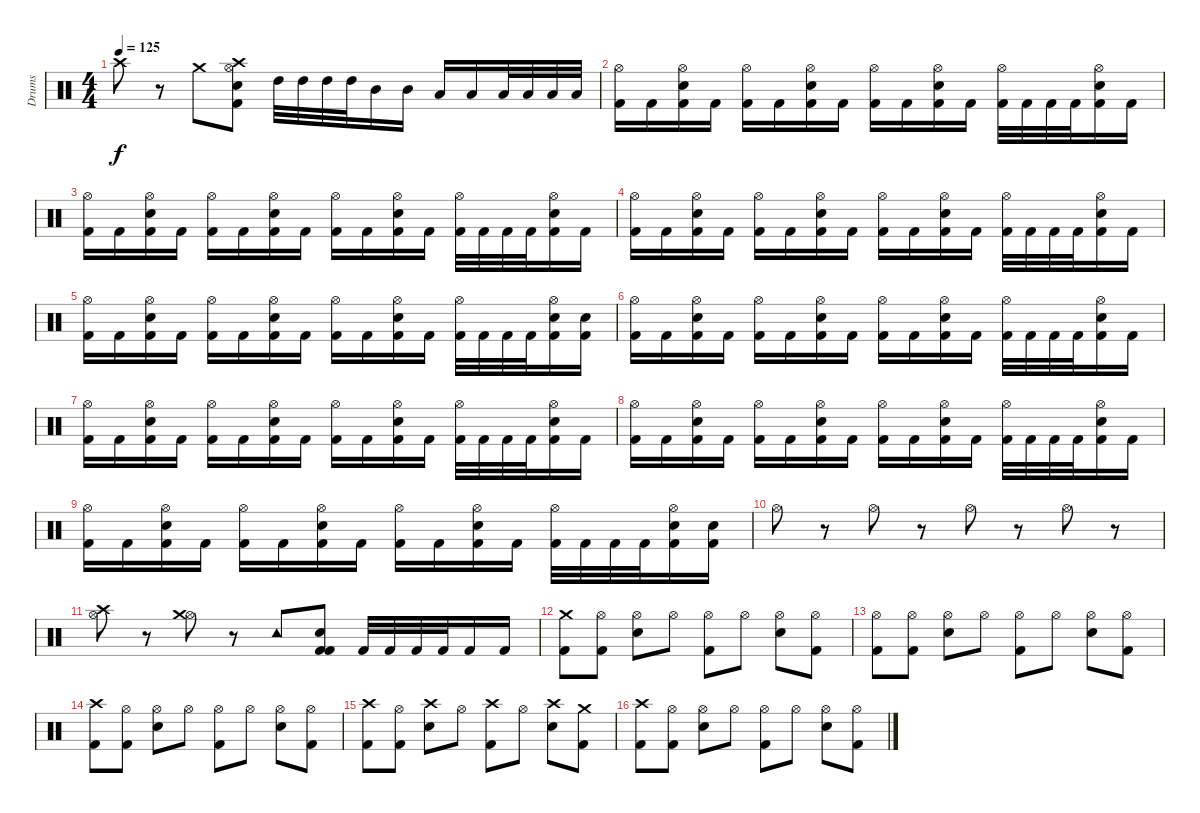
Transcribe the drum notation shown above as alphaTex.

\track ("Drums" "Drums") {instrument percussion}
\staff {score}
\articulation defaults
\ts (4 4)
\tempo 125
\clef neutral
\ks c "Crash high (hit)".8{dy f}
r.8 "Crash medium (hit)".8 ("Hi-Hat (open)" "Crash high (hit)" "Kick (hit) 2" "Electric Snare (hit)").8 "High Tom (hit)".32 "High Tom (hit)".32 "High Tom (hit)".32 "High Tom (hit)".32 "Mid Tom (hit)".16 "Mid Tom (hit)".16 "Low Tom (hit)".16 "Low Tom (hit)".16 "Low Floor Tom (hit)".32 "Low Floor Tom (hit)".32 "Low Floor Tom (hit)".32 "Low Floor Tom (hit)".32 |
("Hi-Hat (open)" "Kick (hit) 2").16 "Kick (hit) 2".16 ("Hi-Hat (open)" "Electric Snare (hit)" "Kick (hit) 2").16 "Kick (hit) 2".16 ("Hi-Hat (open)" "Kick (hit) 2").16 "Kick (hit) 2".16 ("Hi-Hat (open)" "Electric Snare (hit)" "Kick (hit) 2").16 "Kick (hit) 2".16 ("Hi-Hat (open)" "Kick (hit) 2").16 "Kick (hit) 2".16 ("Hi-Hat (open)" "Electric Snare (hit)" "Kick (hit) 2").16 "Kick (hit) 2".16 ("Hi-Hat (open)" "Kick (hit) 2").32 "Kick (hit) 2".32 "Kick (hit) 2".32 "Kick (hit) 2".32 ("Hi-Hat (open)" "Electric Snare (hit)" "Kick (hit) 2").16 "Kick (hit) 2".16 |
("Hi-Hat (open)" "Kick (hit) 2").16 "Kick (hit) 2".16 ("Hi-Hat (open)" "Electric Snare (hit)" "Kick (hit) 2").16 "Kick (hit) 2".16 ("Hi-Hat (open)" "Kick (hit) 2").16 "Kick (hit) 2".16 ("Hi-Hat (open)" "Electric Snare (hit)" "Kick (hit) 2").16 "Kick (hit) 2".16 ("Hi-Hat (open)" "Kick (hit) 2").16 "Kick (hit) 2".16 ("Hi-Hat (open)" "Electric Snare (hit)" "Kick (hit) 2").16 "Kick (hit) 2".16 ("Hi-Hat (open)" "Kick (hit) 2").32 "Kick (hit) 2".32 "Kick (hit) 2".32 "Kick (hit) 2".32 ("Hi-Hat (open)" "Electric Snare (hit)" "Kick (hit) 2").16 "Kick (hit) 2".16 |
("Hi-Hat (open)" "Kick (hit) 2").16 "Kick (hit) 2".16 ("Hi-Hat (open)" "Electric Snare (hit)" "Kick (hit) 2").16 "Kick (hit) 2".16 ("Hi-Hat (open)" "Kick (hit) 2").16 "Kick (hit) 2".16 ("Hi-Hat (open)" "Electric Snare (hit)" "Kick (hit) 2").16 "Kick (hit) 2".16 ("Hi-Hat (open)" "Kick (hit) 2").16 "Kick (hit) 2".16 ("Hi-Hat (open)" "Electric Snare (hit)" "Kick (hit) 2").16 "Kick (hit) 2".16 ("Hi-Hat (open)" "Kick (hit) 2").32 "Kick (hit) 2".32 "Kick (hit) 2".32 "Kick (hit) 2".32 ("Hi-Hat (open)" "Electric Snare (hit)" "Kick (hit) 2").16 "Kick (hit) 2".16 |
("Hi-Hat (open)" "Kick (hit) 2").16 "Kick (hit) 2".16 ("Hi-Hat (open)" "Electric Snare (hit)" "Kick (hit) 2").16 "Kick (hit) 2".16 ("Hi-Hat (open)" "Kick (hit) 2").16 "Kick (hit) 2".16 ("Hi-Hat (open)" "Electric Snare (hit)" "Kick (hit) 2").16 "Kick (hit) 2".16 ("Hi-Hat (open)" "Kick (hit) 2").16 "Kick (hit) 2".16 ("Hi-Hat (open)" "Electric Snare (hit)" "Kick (hit) 2").16 "Kick (hit) 2".16 ("Hi-Hat (open)" "Kick (hit) 2").32 "Kick (hit) 2".32 "Kick (hit) 2".32 "Kick (hit) 2".32 ("Hi-Hat (open)" "Electric Snare (hit)" "Kick (hit) 2").16 ("Electric Snare (hit)" "Kick (hit) 2").16 |
("Hi-Hat (open)" "Kick (hit) 2").16 "Kick (hit) 2".16 ("Hi-Hat (open)" "Electric Snare (hit)" "Kick (hit) 2").16 "Kick (hit) 2".16 ("Hi-Hat (open)" "Kick (hit) 2").16 "Kick (hit) 2".16 ("Hi-Hat (open)" "Electric Snare (hit)" "Kick (hit) 2").16 "Kick (hit) 2".16 ("Hi-Hat (open)" "Kick (hit) 2").16 "Kick (hit) 2".16 ("Hi-Hat (open)" "Electric Snare (hit)" "Kick (hit) 2").16 "Kick (hit) 2".16 ("Hi-Hat (open)" "Kick (hit) 2").32 "Kick (hit) 2".32 "Kick (hit) 2".32 "Kick (hit) 2".32 ("Hi-Hat (open)" "Electric Snare (hit)" "Kick (hit) 2").16 "Kick (hit) 2".16 |
("Hi-Hat (open)" "Kick (hit) 2").16 "Kick (hit) 2".16 ("Hi-Hat (open)" "Electric Snare (hit)" "Kick (hit) 2").16 "Kick (hit) 2".16 ("Hi-Hat (open)" "Kick (hit) 2").16 "Kick (hit) 2".16 ("Hi-Hat (open)" "Electric Snare (hit)" "Kick (hit) 2").16 "Kick (hit) 2".16 ("Hi-Hat (open)" "Kick (hit) 2").16 "Kick (hit) 2".16 ("Hi-Hat (open)" "Electric Snare (hit)" "Kick (hit) 2").16 "Kick (hit) 2".16 ("Hi-Hat (open)" "Kick (hit) 2").32 "Kick (hit) 2".32 "Kick (hit) 2".32 "Kick (hit) 2".32 ("Hi-Hat (open)" "Electric Snare (hit)" "Kick (hit) 2").16 "Kick (hit) 2".16 |
("Hi-Hat (open)" "Kick (hit) 2").16 "Kick (hit) 2".16 ("Hi-Hat (open)" "Electric Snare (hit)" "Kick (hit) 2").16 "Kick (hit) 2".16 ("Hi-Hat (open)" "Kick (hit) 2").16 "Kick (hit) 2".16 ("Hi-Hat (open)" "Electric Snare (hit)" "Kick (hit) 2").16 "Kick (hit) 2".16 ("Hi-Hat (open)" "Kick (hit) 2").16 "Kick (hit) 2".16 ("Hi-Hat (open)" "Electric Snare (hit)" "Kick (hit) 2").16 "Kick (hit) 2".16 ("Hi-Hat (open)" "Kick (hit) 2").32 "Kick (hit) 2".32 "Kick (hit) 2".32 "Kick (hit) 2".32 ("Hi-Hat (open)" "Electric Snare (hit)" "Kick (hit) 2").16 "Kick (hit) 2".16 |
("Hi-Hat (open)" "Kick (hit) 2").16 "Kick (hit) 2".16 ("Hi-Hat (open)" "Electric Snare (hit)" "Kick (hit) 2").16 "Kick (hit) 2".16 ("Hi-Hat (open)" "Kick (hit) 2").16 "Kick (hit) 2".16 ("Hi-Hat (open)" "Electric Snare (hit)" "Kick (hit) 2").16 "Kick (hit) 2".16 ("Hi-Hat (open)" "Kick (hit) 2").16 "Kick (hit) 2".16 ("Hi-Hat (open)" "Electric Snare (hit)" "Kick (hit) 2").16 "Kick (hit) 2".16 ("Hi-Hat (open)" "Kick (hit) 2").32 "Kick (hit) 2".32 "Kick (hit) 2".32 "Kick (hit) 2".32 ("Hi-Hat (open)" "Electric Snare (hit)" "Kick (hit) 2").16 ("Electric Snare (hit)" "Kick (hit) 2").16 |
"Hi-Hat (open)".8 r.8 "Hi-Hat (open)".8 r.8 "Hi-Hat (open)".8 r.8 "Hi-Hat (open)".8 r.8 |
("Hi-Hat (open)" "Crash high (hit)").8 r.8 ("Hi-Hat (open)" "Crash medium (hit)").8 r.8 "Tambourine (hit)".8 ("Kick (hit) 2" "Electric Snare (hit)" "Kick (hit) 2").8 "Kick (hit) 2".32 "Kick (hit) 2".32 "Kick (hit) 2".32 "Kick (hit) 2".32 "Kick (hit) 2".16 "Kick (hit) 2".16 |
("Crash medium (hit)" "Kick (hit) 2").8 ("Hi-Hat (open)" "Kick (hit) 2").8 ("Hi-Hat (open)" "Electric Snare (hit)").8 "Hi-Hat (open)".8 ("Hi-Hat (open)" "Kick (hit) 2").8 "Hi-Hat (open)".8 ("Hi-Hat (open)" "Electric Snare (hit)").8 ("Hi-Hat (open)" "Kick (hit) 2").8 |
("Hi-Hat (open)" "Kick (hit) 2").8 ("Hi-Hat (open)" "Kick (hit) 2").8 ("Hi-Hat (open)" "Electric Snare (hit)").8 "Hi-Hat (open)".8 ("Hi-Hat (open)" "Kick (hit) 2").8 "Hi-Hat (open)".8 ("Hi-Hat (open)" "Electric Snare (hit)").8 ("Hi-Hat (open)" "Kick (hit) 2").8 |
("Crash high (hit)" "Kick (hit) 2").8 ("Hi-Hat (open)" "Kick (hit) 2").8 ("Hi-Hat (open)" "Electric Snare (hit)").8 "Hi-Hat (open)".8 ("Hi-Hat (open)" "Kick (hit) 2").8 "Hi-Hat (open)".8 ("Hi-Hat (open)" "Electric Snare (hit)").8 ("Hi-Hat (open)" "Kick (hit) 2").8 |
("Crash high (hit)" "Kick (hit) 2").8 ("Hi-Hat (open)" "Kick (hit) 2").8 ("Crash high (hit)" "Electric Snare (hit)").8 "Hi-Hat (open)".8 ("Crash high (hit)" "Kick (hit) 2").8 "Hi-Hat (open)".8 ("Crash high (hit)" "Electric Snare (hit)").8 ("Crash medium (hit)" "Kick (hit) 2").8 |
("Crash high (hit)" "Kick (hit) 2").8 ("Hi-Hat (open)" "Kick (hit) 2").8 ("Hi-Hat (open)" "Electric Snare (hit)").8 "Hi-Hat (open)".8 ("Hi-Hat (open)" "Kick (hit) 2").8 "Hi-Hat (open)".8 ("Hi-Hat (open)" "Electric Snare (hit)").8 ("Hi-Hat (open)" "Kick (hit) 2").8
